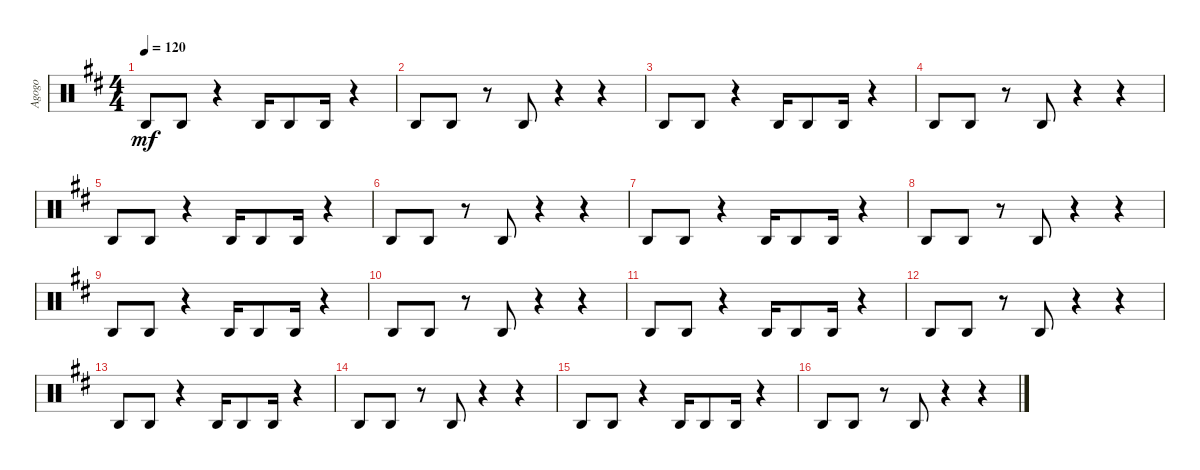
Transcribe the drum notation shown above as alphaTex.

\track ("Agogo" "Agogo") {instrument percussion}
\staff {score}
\articulation defaults
\ts (4 4)
\tempo 120
\clef neutral
\ks d "Agogo high (hit)".8{dy mf balance 1} "Agogo high (hit)".8
r.4 "Agogo high (hit)".16 "Agogo high (hit)".8 "Agogo high (hit)".16 r.4 |
"Agogo high (hit)".8 "Agogo high (hit)".8 r.8 "Agogo high (hit)".8 r.4 r.4 |
"Agogo high (hit)".8 "Agogo high (hit)".8 r.4 "Agogo high (hit)".16 "Agogo high (hit)".8 "Agogo high (hit)".16 r.4 |
"Agogo high (hit)".8 "Agogo high (hit)".8 r.8 "Agogo high (hit)".8 r.4 r.4 |
"Agogo high (hit)".8 "Agogo high (hit)".8 r.4 "Agogo high (hit)".16 "Agogo high (hit)".8 "Agogo high (hit)".16 r.4 |
"Agogo high (hit)".8 "Agogo high (hit)".8 r.8 "Agogo high (hit)".8 r.4 r.4 |
"Agogo high (hit)".8 "Agogo high (hit)".8 r.4 "Agogo high (hit)".16 "Agogo high (hit)".8 "Agogo high (hit)".16 r.4 |
"Agogo high (hit)".8 "Agogo high (hit)".8 r.8 "Agogo high (hit)".8 r.4 r.4 |
"Agogo high (hit)".8 "Agogo high (hit)".8 r.4 "Agogo high (hit)".16 "Agogo high (hit)".8 "Agogo high (hit)".16 r.4 |
"Agogo high (hit)".8 "Agogo high (hit)".8 r.8 "Agogo high (hit)".8 r.4 r.4 |
"Agogo high (hit)".8 "Agogo high (hit)".8 r.4 "Agogo high (hit)".16 "Agogo high (hit)".8 "Agogo high (hit)".16 r.4 |
"Agogo high (hit)".8 "Agogo high (hit)".8 r.8 "Agogo high (hit)".8 r.4 r.4 |
"Agogo high (hit)".8 "Agogo high (hit)".8 r.4 "Agogo high (hit)".16 "Agogo high (hit)".8 "Agogo high (hit)".16 r.4 |
"Agogo high (hit)".8 "Agogo high (hit)".8 r.8 "Agogo high (hit)".8 r.4 r.4 |
"Agogo high (hit)".8 "Agogo high (hit)".8 r.4 "Agogo high (hit)".16 "Agogo high (hit)".8 "Agogo high (hit)".16 r.4 |
"Agogo high (hit)".8 "Agogo high (hit)".8 r.8 "Agogo high (hit)".8 r.4 r.4
